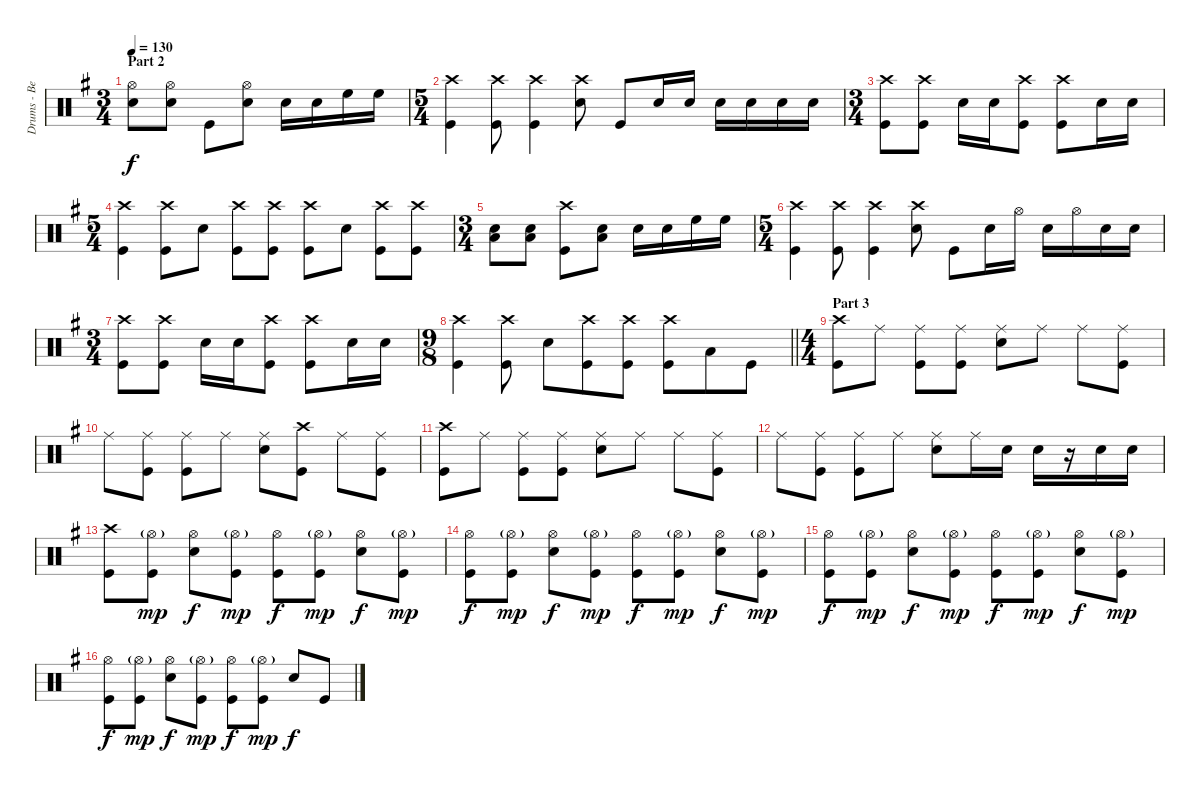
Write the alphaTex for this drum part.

\track ("Drums - Ben Johnston" "Drums - Be") {instrument percussion}
\staff {score}
\articulation defaults
\ts (3 4)
\section ("" "Part 2")
\tempo 130
\clef neutral
\ks eminor
("Hi-Hat (open)" "Snare (hit) 2").8{dy f} ("Hi-Hat (open)" "Snare (hit) 2").8 "Kick (hit)".8 ("Hi-Hat (open)" "Snare (hit) 2").8 "Snare (hit) 2".16 "Snare (hit) 2".16 "High Floor Tom (hit)".16 "High Floor Tom (hit)".16 |
\ts (5 4)
("Crash high (hit)" "Kick (hit)").4 ("Crash high (hit)" "Kick (hit)").8 ("Crash high (hit)" "Kick (hit)").4 ("Crash high (hit)" "Snare (hit) 2").8 "Kick (hit)".8 "Snare (hit) 2".16 "Snare (hit) 2".16 "Snare (hit) 2".16 "Snare (hit) 2".16 "Snare (hit) 2".16 "Snare (hit) 2".16 |
\ts (3 4)
("Crash high (hit)" "Kick (hit)").8 ("Crash high (hit)" "Kick (hit)").8 "Snare (hit) 2".16 "Snare (hit) 2".16 ("Crash high (hit)" "Kick (hit)").8 ("Crash high (hit)" "Kick (hit)").8 "Snare (hit) 2".16 "Snare (hit) 2".16 |
\ts (5 4)
("Crash high (hit)" "Kick (hit)").4 ("Crash high (hit)" "Kick (hit)").8 "Snare (hit) 2".8 ("Crash high (hit)" "Kick (hit)").8 ("Crash high (hit)" "Kick (hit)").8 ("Crash high (hit)" "Kick (hit)").8 "Snare (hit) 2".8 ("Crash high (hit)" "Kick (hit)").8 ("Crash high (hit)" "Kick (hit)").8 |
\ts (3 4)
("Low Tom (hit)" "Snare (hit) 2").8 ("Low Tom (hit)" "Snare (hit) 2").8 ("Crash high (hit)" "Kick (hit)").8 ("Low Tom (hit)" "Snare (hit) 2").8 "Snare (hit) 2".16 "Snare (hit) 2".16 "High Floor Tom (hit)".16 "High Floor Tom (hit)".16 |
\ts (5 4)
("Crash high (hit)" "Kick (hit)").4 ("Crash high (hit)" "Kick (hit)").8 ("Crash high (hit)" "Kick (hit)").4 ("Crash high (hit)" "Snare (hit) 2").8 "Kick (hit)".8 "Snare (hit) 2".16 "Hi-Hat (open)".16 "Snare (hit) 2".16 "Hi-Hat (open)".16 "Snare (hit) 2".16 "Snare (hit) 2".16 |
\ts (3 4)
("Crash high (hit)" "Kick (hit)").8 ("Crash high (hit)" "Kick (hit)").8 "Snare (hit) 2".16 "Snare (hit) 2".16 ("Crash high (hit)" "Kick (hit)").8 ("Crash high (hit)" "Kick (hit)").8 "Snare (hit) 2".16 "Snare (hit) 2".16 |
\ts (9 8)
\barLineRight lightlight
("Crash high (hit)" "Kick (hit)").4 ("Crash high (hit)" "Kick (hit)").8 "Snare (hit) 2".8 ("Crash high (hit)" "Kick (hit)").8 ("Crash high (hit)" "Kick (hit)").8 ("Crash high (hit)" "Kick (hit)").8 "Low Tom (hit)".8 "Kick (hit)".8 |
\ts (4 4)
\section ("" "Part 3")
("Crash high (hit)" "Kick (hit)").8 "Ride (middle)".8 ("Ride (middle)" "Kick (hit)").8 ("Ride (middle)" "Kick (hit)").8 ("Ride (middle)" "Snare (hit) 2").8 "Ride (middle)".8 "Ride (middle)".8 ("Ride (middle)" "Kick (hit)").8 |
"Ride (middle)".8 ("Ride (middle)" "Kick (hit)").8 ("Ride (middle)" "Kick (hit)").8 "Ride (middle)".8 ("Ride (middle)" "Snare (hit) 2").8 ("Crash high (hit)" "Kick (hit)").8 "Ride (middle)".8 ("Ride (middle)" "Kick (hit)").8 |
("Crash high (hit)" "Kick (hit)").8 "Ride (middle)".8 ("Ride (middle)" "Kick (hit)").8 ("Ride (middle)" "Kick (hit)").8 ("Ride (middle)" "Snare (hit) 2").8 "Ride (middle)".8 "Ride (middle)".8 ("Ride (middle)" "Kick (hit)").8 |
"Ride (middle)".8 ("Ride (middle)" "Kick (hit)").8 ("Ride (middle)" "Kick (hit)").8 "Ride (middle)".8 ("Ride (middle)" "Snare (hit) 2").8 "Ride (middle)".16 "Snare (hit) 2".16 "Snare (hit) 2".16 r.16 "Snare (hit) 2".16 "Snare (hit) 2".16 |
("Crash high (hit)" "Kick (hit)").8 ("Hi-Hat (open)"{g} "Kick (hit)").8{dy mp} ("Hi-Hat (open)" "Snare (hit) 2").8{dy f} ("Hi-Hat (open)"{g} "Kick (hit)").8{dy mp} ("Hi-Hat (open)" "Kick (hit)").8{dy f} ("Hi-Hat (open)"{g} "Kick (hit)").8{dy mp} ("Hi-Hat (open)" "Snare (hit) 2").8{dy f} ("Hi-Hat (open)"{g} "Kick (hit)").8{dy mp} |
("Hi-Hat (open)" "Kick (hit)").8{dy f} ("Hi-Hat (open)"{g} "Kick (hit)").8{dy mp} ("Hi-Hat (open)" "Snare (hit) 2").8{dy f} ("Hi-Hat (open)"{g} "Kick (hit)").8{dy mp} ("Hi-Hat (open)" "Kick (hit)").8{dy f} ("Hi-Hat (open)"{g} "Kick (hit)").8{dy mp} ("Hi-Hat (open)" "Snare (hit) 2").8{dy f} ("Hi-Hat (open)"{g} "Kick (hit)").8{dy mp} |
("Hi-Hat (open)" "Kick (hit)").8{dy f} ("Hi-Hat (open)"{g} "Kick (hit)").8{dy mp} ("Hi-Hat (open)" "Snare (hit) 2").8{dy f} ("Hi-Hat (open)"{g} "Kick (hit)").8{dy mp} ("Hi-Hat (open)" "Kick (hit)").8{dy f} ("Hi-Hat (open)"{g} "Kick (hit)").8{dy mp} ("Hi-Hat (open)" "Snare (hit) 2").8{dy f} ("Hi-Hat (open)"{g} "Kick (hit)").8{dy mp} |
("Hi-Hat (open)" "Kick (hit)").8{dy f} ("Hi-Hat (open)"{g} "Kick (hit)").8{dy mp} ("Hi-Hat (open)" "Snare (hit) 2").8{dy f} ("Hi-Hat (open)"{g} "Kick (hit)").8{dy mp} ("Hi-Hat (open)" "Kick (hit)").8{dy f} ("Hi-Hat (open)"{g} "Kick (hit)").8{dy mp} "Snare (hit) 2".8{dy f} "Kick (hit)".8
